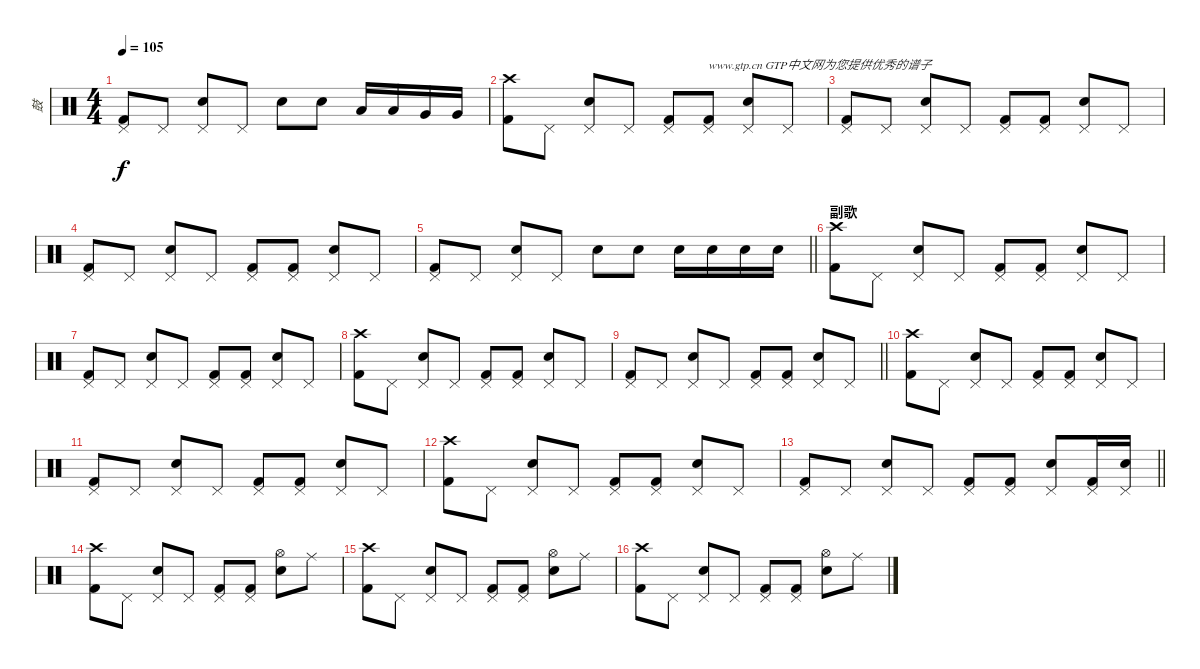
\track ("鼓" "鼓") {instrument percussion}
\staff {score}
\articulation defaults
\ts (4 4)
\tempo 105
\clef neutral
\ks c
("Pedal Hi-Hat (hit)" "Kick (hit) 2").8{dy f} "Pedal Hi-Hat (hit)".8 ("Pedal Hi-Hat (hit)" "Electric Snare (hit)").8 "Pedal Hi-Hat (hit)".8 "Electric Snare (hit)".8 "Electric Snare (hit)".8 "Low Tom (hit)".16 "Low Tom (hit)".16 "Very Low Tom (hit)".16 "Very Low Tom (hit)".16 |
("Crash high (hit)" "Kick (hit) 2").8 "Pedal Hi-Hat (hit)".8 ("Pedal Hi-Hat (hit)" "Electric Snare (hit)").8 "Pedal Hi-Hat (hit)".8 ("Pedal Hi-Hat (hit)" "Kick (hit) 2").8 ("Pedal Hi-Hat (hit)" "Kick (hit) 2").8{txt "www.gtp.cn GTP中文网为您提供优秀的谱子"} ("Pedal Hi-Hat (hit)" "Electric Snare (hit)").8 "Pedal Hi-Hat (hit)".8 |
("Pedal Hi-Hat (hit)" "Kick (hit) 2").8 "Pedal Hi-Hat (hit)".8 ("Pedal Hi-Hat (hit)" "Electric Snare (hit)").8 "Pedal Hi-Hat (hit)".8 ("Pedal Hi-Hat (hit)" "Kick (hit) 2").8 ("Pedal Hi-Hat (hit)" "Kick (hit) 2").8 ("Pedal Hi-Hat (hit)" "Electric Snare (hit)").8 "Pedal Hi-Hat (hit)".8 |
("Pedal Hi-Hat (hit)" "Kick (hit) 2").8 "Pedal Hi-Hat (hit)".8 ("Pedal Hi-Hat (hit)" "Electric Snare (hit)").8 "Pedal Hi-Hat (hit)".8 ("Pedal Hi-Hat (hit)" "Kick (hit) 2").8 ("Pedal Hi-Hat (hit)" "Kick (hit) 2").8 ("Pedal Hi-Hat (hit)" "Electric Snare (hit)").8 "Pedal Hi-Hat (hit)".8 |
\barLineRight lightlight
("Pedal Hi-Hat (hit)" "Kick (hit) 2").8 "Pedal Hi-Hat (hit)".8 ("Pedal Hi-Hat (hit)" "Electric Snare (hit)").8 "Pedal Hi-Hat (hit)".8 "Electric Snare (hit)".8 "Electric Snare (hit)".8 "Electric Snare (hit)".16 "Electric Snare (hit)".16 "Electric Snare (hit)".16 "Electric Snare (hit)".16 |
\section ("" "副歌")
("Crash high (hit)" "Kick (hit) 2").8 "Pedal Hi-Hat (hit)".8 ("Pedal Hi-Hat (hit)" "Electric Snare (hit)").8 "Pedal Hi-Hat (hit)".8 ("Pedal Hi-Hat (hit)" "Kick (hit) 2").8 ("Pedal Hi-Hat (hit)" "Kick (hit) 2").8 ("Pedal Hi-Hat (hit)" "Electric Snare (hit)").8 "Pedal Hi-Hat (hit)".8 |
("Pedal Hi-Hat (hit)" "Kick (hit) 2").8 "Pedal Hi-Hat (hit)".8 ("Pedal Hi-Hat (hit)" "Electric Snare (hit)").8 "Pedal Hi-Hat (hit)".8 ("Pedal Hi-Hat (hit)" "Kick (hit) 2").8 ("Pedal Hi-Hat (hit)" "Kick (hit) 2").8 ("Pedal Hi-Hat (hit)" "Electric Snare (hit)").8 "Pedal Hi-Hat (hit)".8 |
("Crash high (hit)" "Kick (hit) 2").8 "Pedal Hi-Hat (hit)".8 ("Pedal Hi-Hat (hit)" "Electric Snare (hit)").8 "Pedal Hi-Hat (hit)".8 ("Pedal Hi-Hat (hit)" "Kick (hit) 2").8 ("Pedal Hi-Hat (hit)" "Kick (hit) 2").8 ("Pedal Hi-Hat (hit)" "Electric Snare (hit)").8 "Pedal Hi-Hat (hit)".8 |
\barLineRight lightlight
("Pedal Hi-Hat (hit)" "Kick (hit) 2").8 "Pedal Hi-Hat (hit)".8 ("Pedal Hi-Hat (hit)" "Electric Snare (hit)").8 "Pedal Hi-Hat (hit)".8 ("Pedal Hi-Hat (hit)" "Kick (hit) 2").8 ("Pedal Hi-Hat (hit)" "Kick (hit) 2").8 ("Pedal Hi-Hat (hit)" "Electric Snare (hit)").8 "Pedal Hi-Hat (hit)".8 |
("Crash high (hit)" "Kick (hit) 2").8 "Pedal Hi-Hat (hit)".8 ("Pedal Hi-Hat (hit)" "Electric Snare (hit)").8 "Pedal Hi-Hat (hit)".8 ("Pedal Hi-Hat (hit)" "Kick (hit) 2").8 ("Pedal Hi-Hat (hit)" "Kick (hit) 2").8 ("Pedal Hi-Hat (hit)" "Electric Snare (hit)").8 "Pedal Hi-Hat (hit)".8 |
("Pedal Hi-Hat (hit)" "Kick (hit) 2").8 "Pedal Hi-Hat (hit)".8 ("Pedal Hi-Hat (hit)" "Electric Snare (hit)").8 "Pedal Hi-Hat (hit)".8 ("Pedal Hi-Hat (hit)" "Kick (hit) 2").8 ("Pedal Hi-Hat (hit)" "Kick (hit) 2").8 ("Pedal Hi-Hat (hit)" "Electric Snare (hit)").8 "Pedal Hi-Hat (hit)".8 |
("Crash high (hit)" "Kick (hit) 2").8 "Pedal Hi-Hat (hit)".8 ("Pedal Hi-Hat (hit)" "Electric Snare (hit)").8 "Pedal Hi-Hat (hit)".8 ("Pedal Hi-Hat (hit)" "Kick (hit) 2").8 ("Pedal Hi-Hat (hit)" "Kick (hit) 2").8 ("Pedal Hi-Hat (hit)" "Electric Snare (hit)").8 "Pedal Hi-Hat (hit)".8 |
\barLineRight lightlight
("Pedal Hi-Hat (hit)" "Kick (hit) 2").8 "Pedal Hi-Hat (hit)".8 ("Pedal Hi-Hat (hit)" "Electric Snare (hit)").8 "Pedal Hi-Hat (hit)".8 ("Pedal Hi-Hat (hit)" "Kick (hit) 2").8 ("Pedal Hi-Hat (hit)" "Kick (hit) 2").8 ("Pedal Hi-Hat (hit)" "Electric Snare (hit)").8 ("Pedal Hi-Hat (hit)" "Kick (hit) 2").16 ("Pedal Hi-Hat (hit)" "Electric Snare (hit)").16 |
("Crash high (hit)" "Kick (hit) 2").8 "Pedal Hi-Hat (hit)".8 ("Pedal Hi-Hat (hit)" "Electric Snare (hit)").8 "Pedal Hi-Hat (hit)".8 ("Pedal Hi-Hat (hit)" "Kick (hit) 2").8 ("Pedal Hi-Hat (hit)" "Kick (hit) 2").8 ("Hi-Hat (open)" "Electric Snare (hit)").8 "Ride (middle)".8 |
("Crash high (hit)" "Kick (hit) 2").8 "Pedal Hi-Hat (hit)".8 ("Pedal Hi-Hat (hit)" "Electric Snare (hit)").8 "Pedal Hi-Hat (hit)".8 ("Pedal Hi-Hat (hit)" "Kick (hit) 2").8 ("Pedal Hi-Hat (hit)" "Kick (hit) 2").8 ("Hi-Hat (open)" "Electric Snare (hit)").8 "Ride (middle)".8 |
("Crash high (hit)" "Kick (hit) 2").8 "Pedal Hi-Hat (hit)".8 ("Pedal Hi-Hat (hit)" "Electric Snare (hit)").8 "Pedal Hi-Hat (hit)".8 ("Pedal Hi-Hat (hit)" "Kick (hit) 2").8 ("Pedal Hi-Hat (hit)" "Kick (hit) 2").8 ("Hi-Hat (open)" "Electric Snare (hit)").8 "Ride (middle)".8
